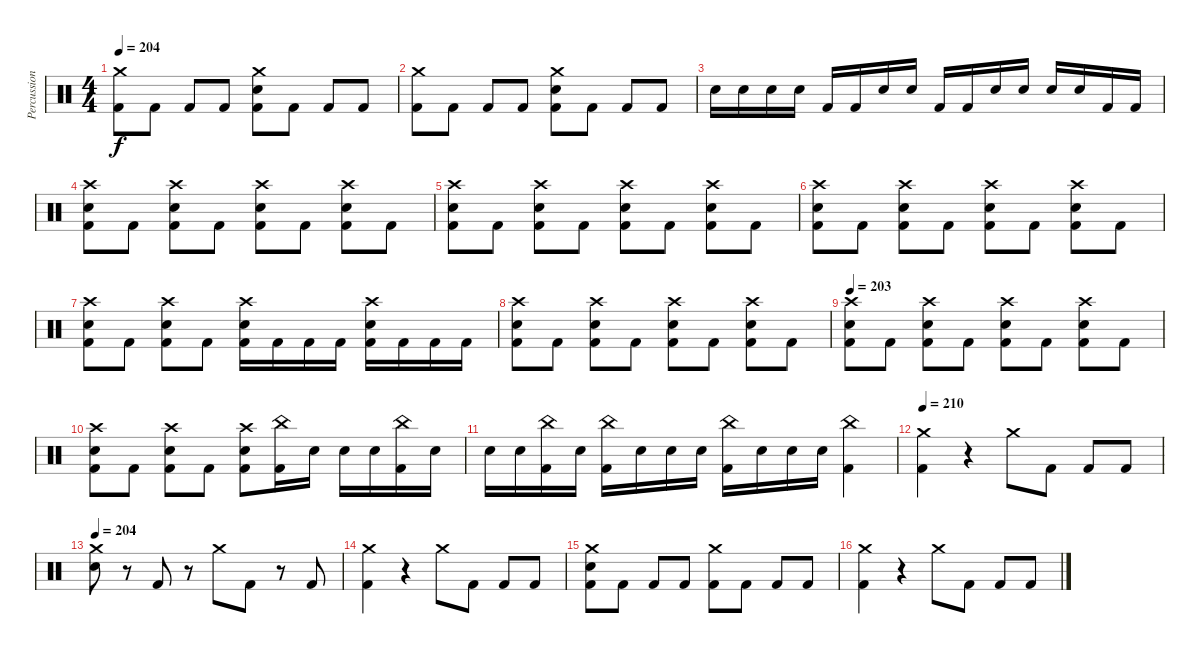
\track ("Percussion" "Percussion") {instrument percussion}
\staff {score}
\articulation defaults
\ts (4 4)
\tempo 204
\clef neutral
\ks c
("Crash medium (hit)" "Kick (hit) 2").8{dy f} "Kick (hit) 2".8 "Kick (hit) 2".8 "Kick (hit) 2".8 ("Crash medium (hit)" "Snare (hit) 2" "Kick (hit) 2").8 "Kick (hit) 2".8 "Kick (hit) 2".8 "Kick (hit) 2".8 |
("Crash medium (hit)" "Kick (hit) 2").8 "Kick (hit) 2".8 "Kick (hit) 2".8 "Kick (hit) 2".8 ("Crash medium (hit)" "Snare (hit) 2" "Kick (hit) 2").8 "Kick (hit) 2".8 "Kick (hit) 2".8 "Kick (hit) 2".8 |
"Snare (hit) 2".16 "Snare (hit) 2".16 "Snare (hit) 2".16 "Snare (hit) 2".16 "Kick (hit) 2".16 "Kick (hit) 2".16 "Snare (hit) 2".16 "Snare (hit) 2".16 "Kick (hit) 2".16 "Kick (hit) 2".16 "Snare (hit) 2".16 "Snare (hit) 2".16 "Snare (hit) 2".16 "Snare (hit) 2".16 "Kick (hit) 2".16 "Kick (hit) 2".16 |
("Crash high (hit)" "Snare (hit) 2" "Kick (hit) 2").8 "Kick (hit) 2".8 ("Crash high (hit)" "Snare (hit) 2" "Kick (hit) 2").8 "Kick (hit) 2".8 ("Crash high (hit)" "Snare (hit) 2" "Kick (hit) 2").8 "Kick (hit) 2".8 ("Crash high (hit)" "Snare (hit) 2" "Kick (hit) 2").8 "Kick (hit) 2".8 |
("Crash high (hit)" "Snare (hit) 2" "Kick (hit) 2").8 "Kick (hit) 2".8 ("Crash high (hit)" "Snare (hit) 2" "Kick (hit) 2").8 "Kick (hit) 2".8 ("Crash high (hit)" "Snare (hit) 2" "Kick (hit) 2").8 "Kick (hit) 2".8 ("Crash high (hit)" "Snare (hit) 2" "Kick (hit) 2").8 "Kick (hit) 2".8 |
("Crash high (hit)" "Snare (hit) 2" "Kick (hit) 2").8 "Kick (hit) 2".8 ("Crash high (hit)" "Snare (hit) 2" "Kick (hit) 2").8 "Kick (hit) 2".8 ("Crash high (hit)" "Snare (hit) 2" "Kick (hit) 2").8 "Kick (hit) 2".8 ("Crash high (hit)" "Snare (hit) 2" "Kick (hit) 2").8 "Kick (hit) 2".8 |
("Crash high (hit)" "Snare (hit) 2" "Kick (hit) 2").8 "Kick (hit) 2".8 ("Crash high (hit)" "Snare (hit) 2" "Kick (hit) 2").8 "Kick (hit) 2".8 ("Crash high (hit)" "Snare (hit) 2" "Kick (hit) 2").16 "Kick (hit) 2".16 "Kick (hit) 2".16 "Kick (hit) 2".16 ("Crash high (hit)" "Snare (hit) 2" "Kick (hit) 2").16 "Kick (hit) 2".16 "Kick (hit) 2".16 "Kick (hit) 2".16 |
("Crash high (hit)" "Snare (hit) 2" "Kick (hit) 2").8 "Kick (hit) 2".8 ("Crash high (hit)" "Snare (hit) 2" "Kick (hit) 2").8 "Kick (hit) 2".8 ("Crash high (hit)" "Snare (hit) 2" "Kick (hit) 2").8 "Kick (hit) 2".8 ("Crash high (hit)" "Snare (hit) 2" "Kick (hit) 2").8 "Kick (hit) 2".8 |
\tempo 203
("Crash high (hit)" "Snare (hit) 2" "Kick (hit) 2").8 "Kick (hit) 2".8 ("Crash high (hit)" "Snare (hit) 2" "Kick (hit) 2").8 "Kick (hit) 2".8 ("Crash high (hit)" "Snare (hit) 2" "Kick (hit) 2").8 "Kick (hit) 2".8 ("Crash high (hit)" "Snare (hit) 2" "Kick (hit) 2").8 "Kick (hit) 2".8 |
("Crash high (hit)" "Snare (hit) 2" "Kick (hit) 2").8 "Kick (hit) 2".8 ("Crash high (hit)" "Snare (hit) 2" "Kick (hit) 2").8 "Kick (hit) 2".8 ("Crash high (hit)" "Snare (hit) 2" "Kick (hit) 2").8 ("China (hit)" "Kick (hit) 2").16 "Snare (hit) 2".16 "Snare (hit) 2".16 "Snare (hit) 2".16 ("China (hit)" "Kick (hit) 2").16 "Snare (hit) 2".16 |
"Snare (hit) 2".16 "Snare (hit) 2".16 ("China (hit)" "Kick (hit) 2").16 "Snare (hit) 2".16 ("China (hit)" "Kick (hit) 2").16 "Snare (hit) 2".16 "Snare (hit) 2".16 "Snare (hit) 2".16 ("China (hit)" "Kick (hit) 2").16 "Snare (hit) 2".16 "Snare (hit) 2".16 "Snare (hit) 2".16 ("China (hit)" "Kick (hit) 2").4 |
\tempo 210
("Crash medium (hit)" "Kick (hit) 2").4 r.4 "Crash medium (hit)".8 "Kick (hit) 2".8 "Kick (hit) 2".8 "Kick (hit) 2".8 |
\tempo 204
("Crash medium (hit)" "Snare (hit) 2").8 r.8 "Kick (hit) 2".8 r.8 "Crash medium (hit)".8 "Kick (hit) 2".8 r.8 "Kick (hit) 2".8 |
("Crash medium (hit)" "Kick (hit) 2").4 r.4 "Crash medium (hit)".8 "Kick (hit) 2".8 "Kick (hit) 2".8 "Kick (hit) 2".8 |
("Crash medium (hit)" "Snare (hit) 2" "Kick (hit) 2").8 "Kick (hit) 2".8 "Kick (hit) 2".8 "Kick (hit) 2".8 ("Crash medium (hit)" "Kick (hit) 2").8 "Kick (hit) 2".8 "Kick (hit) 2".8 "Kick (hit) 2".8 |
("Crash medium (hit)" "Kick (hit) 2").4 r.4 "Crash medium (hit)".8 "Kick (hit) 2".8 "Kick (hit) 2".8 "Kick (hit) 2".8
